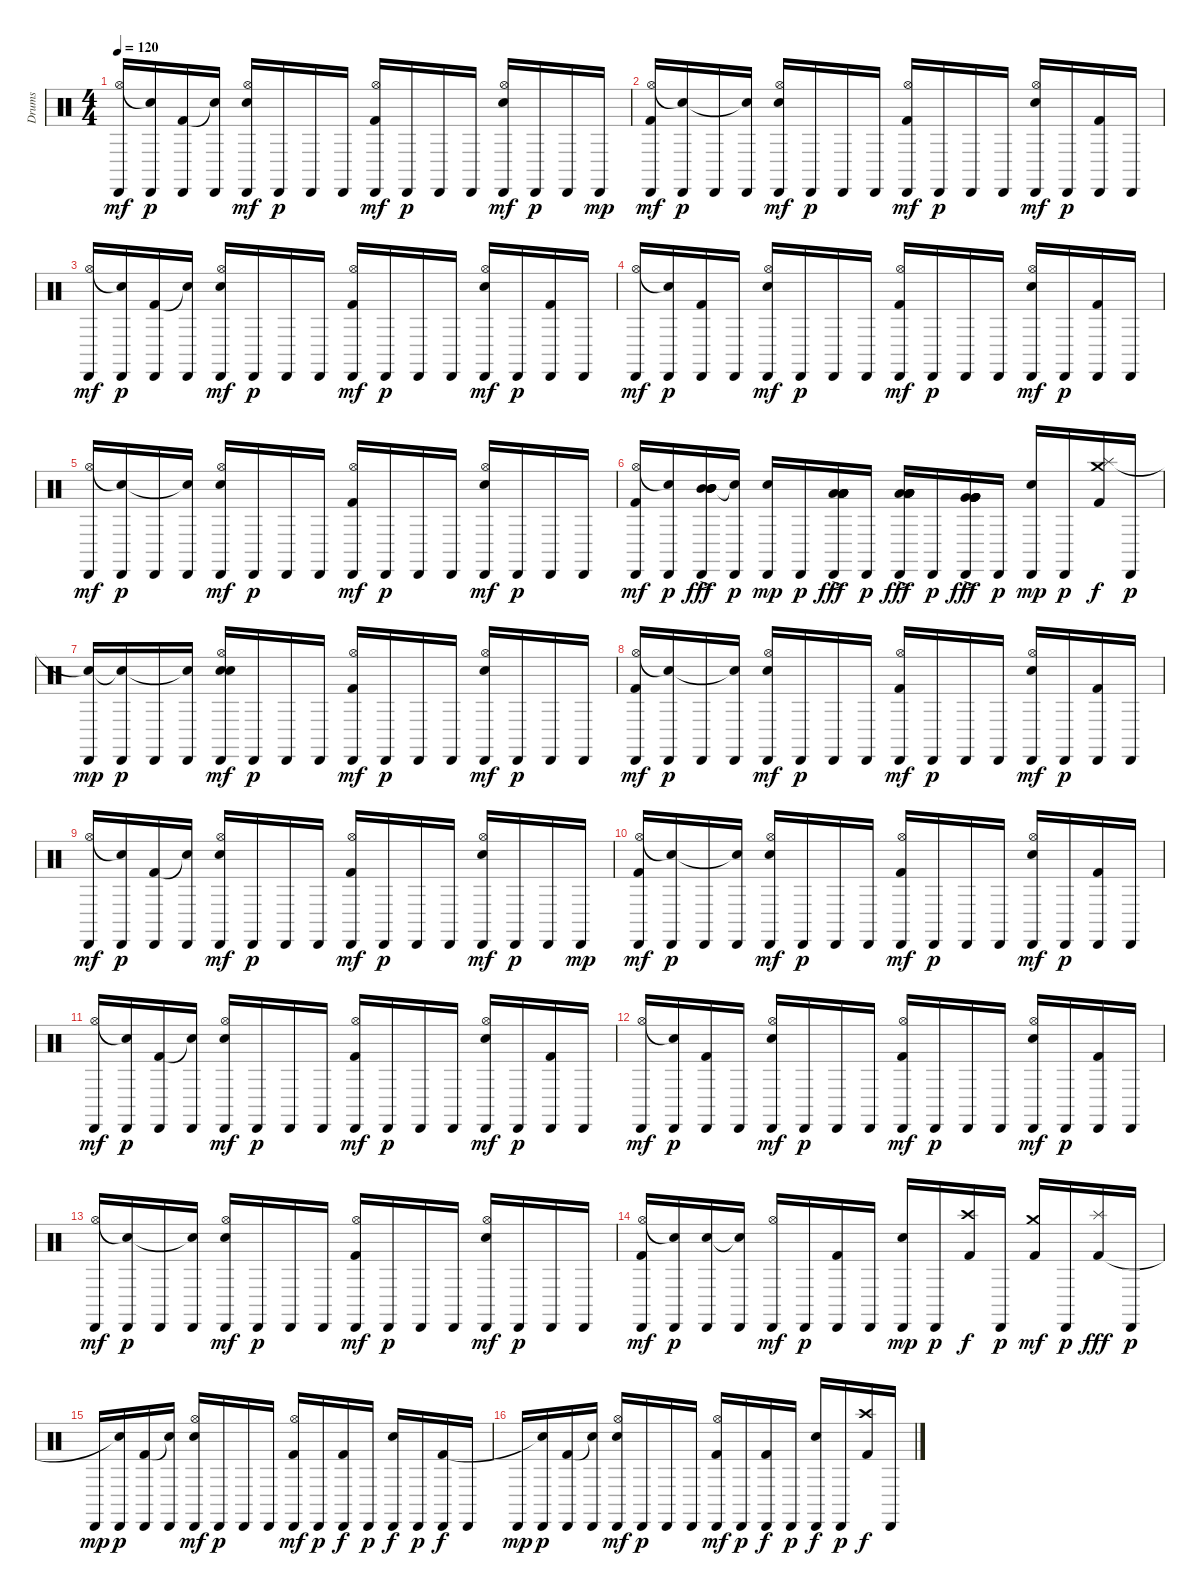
\track ("Drums" "Drums") {instrument percussion}
\staff {score}
\articulation defaults
\ts (4 4)
\tempo 120
\clef neutral
\ks c
("Cabasa (hit)" "Hi-Hat (open)").16{dy mf} ("Cabasa (hit)" "Snare (hit)"{t}).16{dy p} ("Cabasa (hit)" "Kick (hit) 2").16 ("Cabasa (hit)" "Snare (hit)"{t}).16 ("Cabasa (hit)" "Hi-Hat (open)" "Snare (hit) 2").16{dy mf} "Cabasa (hit)".16{dy p} "Cabasa (hit)".16 "Cabasa (hit)".16 ("Cabasa (hit)" "Hi-Hat (open)" "Kick (hit) 2").16{dy mf} "Cabasa (hit)".16{dy p} "Cabasa (hit)".16 "Cabasa (hit)".16 ("Cabasa (hit)" "Hi-Hat (open)" "Snare (hit) 2").16{dy mf} "Cabasa (hit)".16{dy p} "Cabasa (hit)".16 "Cabasa (hit)".16{dy mp} |
("Cabasa (hit)" "Hi-Hat (open)" "Kick (hit) 2").16{dy mf} ("Cabasa (hit)" "Snare (hit)"{t}).16{dy p} "Cabasa (hit)".16 ("Cabasa (hit)" "Snare (hit)"{t}).16 ("Cabasa (hit)" "Hi-Hat (open)" "Snare (hit) 2").16{dy mf} "Cabasa (hit)".16{dy p} "Cabasa (hit)".16 "Cabasa (hit)".16 ("Cabasa (hit)" "Hi-Hat (open)" "Kick (hit) 2").16{dy mf} "Cabasa (hit)".16{dy p} "Cabasa (hit)".16 "Cabasa (hit)".16 ("Cabasa (hit)" "Hi-Hat (open)" "Snare (hit) 2").16{dy mf} "Cabasa (hit)".16{dy p} ("Cabasa (hit)" "Kick (hit) 2").16 "Cabasa (hit)".16 |
("Cabasa (hit)" "Hi-Hat (open)").16{dy mf} ("Cabasa (hit)" "Snare (hit)"{t}).16{dy p} ("Cabasa (hit)" "Kick (hit) 2").16 ("Cabasa (hit)" "Snare (hit)"{t}).16 ("Cabasa (hit)" "Hi-Hat (open)" "Snare (hit) 2").16{dy mf} "Cabasa (hit)".16{dy p} "Cabasa (hit)".16 "Cabasa (hit)".16 ("Cabasa (hit)" "Hi-Hat (open)" "Kick (hit) 2").16{dy mf} "Cabasa (hit)".16{dy p} "Cabasa (hit)".16 "Cabasa (hit)".16 ("Cabasa (hit)" "Hi-Hat (open)" "Snare (hit) 2").16{dy mf} "Cabasa (hit)".16{dy p} ("Cabasa (hit)" "Kick (hit) 2").16 "Cabasa (hit)".16 |
("Cabasa (hit)" "Hi-Hat (open)").16{dy mf} ("Cabasa (hit)" "Snare (hit)"{t}).16{dy p} ("Cabasa (hit)" "Kick (hit) 2").16 "Cabasa (hit)".16 ("Cabasa (hit)" "Hi-Hat (open)" "Snare (hit) 2").16{dy mf} "Cabasa (hit)".16{dy p} "Cabasa (hit)".16 "Cabasa (hit)".16 ("Cabasa (hit)" "Hi-Hat (open)" "Kick (hit) 2").16{dy mf} "Cabasa (hit)".16{dy p} "Cabasa (hit)".16 "Cabasa (hit)".16 ("Cabasa (hit)" "Hi-Hat (open)" "Snare (hit) 2").16{dy mf} "Cabasa (hit)".16{dy p} ("Cabasa (hit)" "Kick (hit) 2").16 "Cabasa (hit)".16 |
("Cabasa (hit)" "Hi-Hat (open)").16{dy mf} ("Cabasa (hit)" "Snare (hit)"{t}).16{dy p} "Cabasa (hit)".16 ("Cabasa (hit)" "Snare (hit)"{t}).16 ("Cabasa (hit)" "Hi-Hat (open)" "Snare (hit) 2").16{dy mf} "Cabasa (hit)".16{dy p} "Cabasa (hit)".16 "Cabasa (hit)".16 ("Cabasa (hit)" "Hi-Hat (open)" "Kick (hit) 2").16{dy mf} "Cabasa (hit)".16{dy p} "Cabasa (hit)".16 "Cabasa (hit)".16 ("Cabasa (hit)" "Hi-Hat (open)" "Snare (hit) 2").16{dy mf} "Cabasa (hit)".16{dy p} "Cabasa (hit)".16 "Cabasa (hit)".16 |
("Cabasa (hit)" "Hi-Hat (open)" "Kick (hit) 2").16{dy mf} ("Cabasa (hit)" "Snare (hit)"{t}).16{dy p} ("Cabasa (hit)" "Mid Tom (hit)"{ac} "Mid Tom (hit)" "Mid Tom (hit)" "Mid Tom (hit)").16{dy fff} ("Cabasa (hit)" "Snare (hit)"{t}).16{dy p} ("Cabasa (hit)" "Snare (hit) 2").16{dy mp} "Cabasa (hit)".16{dy p} ("Cabasa (hit)" "Low Tom (hit)" "Low Tom (hit)" "Low Tom (hit)"{ac} "Low Tom (hit)" "Low Tom (hit)").16{dy fff} "Cabasa (hit)".16{dy p} ("Cabasa (hit)" "Low Tom (hit)" "Low Tom (hit)" "Low Tom (hit)"{ac} "Low Tom (hit)" "Low Tom (hit)").16{dy fff} "Cabasa (hit)".16{dy p} ("Cabasa (hit)" "Very Low Tom (hit)" "Very Low Tom (hit)" "Very Low Tom (hit)" "Very Low Tom (hit)"{ac} "Very Low Tom (hit)").16{dy fff} "Cabasa (hit)".16{dy p} ("Cabasa (hit)" "Snare (hit) 2").16{dy mp} "Cabasa (hit)".16{dy p} ("Crash medium (hit)" "Splash (hit)" "Kick (hit) 2").16{dy f} "Cabasa (hit)".16{dy p} |
("Cabasa (hit)" "Snare (hit)"{t}).16{dy mp} ("Cabasa (hit)" "Snare (hit)"{t}).16{dy p} "Cabasa (hit)".16 ("Cabasa (hit)" "Snare (hit)"{t}).16 ("Cabasa (hit)" "Hi-Hat (open)" "Snare (hit) 2" "Snare (hit) 2").16{dy mf} "Cabasa (hit)".16{dy p} "Cabasa (hit)".16 "Cabasa (hit)".16 ("Cabasa (hit)" "Hi-Hat (open)" "Kick (hit) 2").16{dy mf} "Cabasa (hit)".16{dy p} "Cabasa (hit)".16 "Cabasa (hit)".16 ("Cabasa (hit)" "Hi-Hat (open)" "Snare (hit) 2").16{dy mf} "Cabasa (hit)".16{dy p} "Cabasa (hit)".16 "Cabasa (hit)".16 |
("Cabasa (hit)" "Hi-Hat (open)" "Kick (hit) 2").16{dy mf} ("Cabasa (hit)" "Snare (hit)"{t}).16{dy p} "Cabasa (hit)".16 ("Cabasa (hit)" "Snare (hit)"{t}).16 ("Cabasa (hit)" "Hi-Hat (open)" "Snare (hit) 2").16{dy mf} "Cabasa (hit)".16{dy p} "Cabasa (hit)".16 "Cabasa (hit)".16 ("Cabasa (hit)" "Hi-Hat (open)" "Kick (hit) 2").16{dy mf} "Cabasa (hit)".16{dy p} "Cabasa (hit)".16 "Cabasa (hit)".16 ("Cabasa (hit)" "Hi-Hat (open)" "Snare (hit) 2").16{dy mf} "Cabasa (hit)".16{dy p} ("Cabasa (hit)" "Kick (hit) 2").16 "Cabasa (hit)".16 |
("Cabasa (hit)" "Hi-Hat (open)").16{dy mf} ("Cabasa (hit)" "Snare (hit)"{t}).16{dy p} ("Cabasa (hit)" "Kick (hit) 2").16 ("Cabasa (hit)" "Snare (hit)"{t}).16 ("Cabasa (hit)" "Hi-Hat (open)" "Snare (hit) 2").16{dy mf} "Cabasa (hit)".16{dy p} "Cabasa (hit)".16 "Cabasa (hit)".16 ("Cabasa (hit)" "Hi-Hat (open)" "Kick (hit) 2").16{dy mf} "Cabasa (hit)".16{dy p} "Cabasa (hit)".16 "Cabasa (hit)".16 ("Cabasa (hit)" "Hi-Hat (open)" "Snare (hit) 2").16{dy mf} "Cabasa (hit)".16{dy p} "Cabasa (hit)".16 "Cabasa (hit)".16{dy mp} |
("Cabasa (hit)" "Hi-Hat (open)" "Kick (hit) 2").16{dy mf} ("Cabasa (hit)" "Snare (hit)"{t}).16{dy p} "Cabasa (hit)".16 ("Cabasa (hit)" "Snare (hit)"{t}).16 ("Cabasa (hit)" "Hi-Hat (open)" "Snare (hit) 2").16{dy mf} "Cabasa (hit)".16{dy p} "Cabasa (hit)".16 "Cabasa (hit)".16 ("Cabasa (hit)" "Hi-Hat (open)" "Kick (hit) 2").16{dy mf} "Cabasa (hit)".16{dy p} "Cabasa (hit)".16 "Cabasa (hit)".16 ("Cabasa (hit)" "Hi-Hat (open)" "Snare (hit) 2").16{dy mf} "Cabasa (hit)".16{dy p} ("Cabasa (hit)" "Kick (hit) 2").16 "Cabasa (hit)".16 |
("Cabasa (hit)" "Hi-Hat (open)").16{dy mf} ("Cabasa (hit)" "Snare (hit)"{t}).16{dy p} ("Cabasa (hit)" "Kick (hit) 2").16 ("Cabasa (hit)" "Snare (hit)"{t}).16 ("Cabasa (hit)" "Hi-Hat (open)" "Snare (hit) 2").16{dy mf} "Cabasa (hit)".16{dy p} "Cabasa (hit)".16 "Cabasa (hit)".16 ("Cabasa (hit)" "Hi-Hat (open)" "Kick (hit) 2").16{dy mf} "Cabasa (hit)".16{dy p} "Cabasa (hit)".16 "Cabasa (hit)".16 ("Cabasa (hit)" "Hi-Hat (open)" "Snare (hit) 2").16{dy mf} "Cabasa (hit)".16{dy p} ("Cabasa (hit)" "Kick (hit) 2").16 "Cabasa (hit)".16 |
("Cabasa (hit)" "Hi-Hat (open)").16{dy mf} ("Cabasa (hit)" "Snare (hit)"{t}).16{dy p} ("Cabasa (hit)" "Kick (hit) 2").16 "Cabasa (hit)".16 ("Cabasa (hit)" "Hi-Hat (open)" "Snare (hit) 2").16{dy mf} "Cabasa (hit)".16{dy p} "Cabasa (hit)".16 "Cabasa (hit)".16 ("Cabasa (hit)" "Hi-Hat (open)" "Kick (hit) 2").16{dy mf} "Cabasa (hit)".16{dy p} "Cabasa (hit)".16 "Cabasa (hit)".16 ("Cabasa (hit)" "Hi-Hat (open)" "Snare (hit) 2").16{dy mf} "Cabasa (hit)".16{dy p} ("Cabasa (hit)" "Kick (hit) 2").16 "Cabasa (hit)".16 |
("Cabasa (hit)" "Hi-Hat (open)").16{dy mf} ("Cabasa (hit)" "Snare (hit)"{t}).16{dy p} "Cabasa (hit)".16 ("Cabasa (hit)" "Snare (hit)"{t}).16 ("Cabasa (hit)" "Hi-Hat (open)" "Snare (hit) 2").16{dy mf} "Cabasa (hit)".16{dy p} "Cabasa (hit)".16 "Cabasa (hit)".16 ("Cabasa (hit)" "Hi-Hat (open)" "Kick (hit) 2").16{dy mf} "Cabasa (hit)".16{dy p} "Cabasa (hit)".16 "Cabasa (hit)".16 ("Cabasa (hit)" "Hi-Hat (open)" "Snare (hit) 2").16{dy mf} "Cabasa (hit)".16{dy p} "Cabasa (hit)".16 "Cabasa (hit)".16 |
("Cabasa (hit)" "Hi-Hat (open)" "Kick (hit) 2").16{dy mf} ("Cabasa (hit)" "Snare (hit)"{t}).16{dy p} ("Cabasa (hit)" "Snare (hit) 2").16 ("Cabasa (hit)" "Snare (hit)"{t}).16 ("Cabasa (hit)" "Hi-Hat (open)").16{dy mf} "Cabasa (hit)".16{dy p} ("Cabasa (hit)" "Kick (hit) 2").16 "Cabasa (hit)".16 ("Cabasa (hit)" "Snare (hit) 2").16{dy mp} "Cabasa (hit)".16{dy p} ("Crash high (hit)" "Kick (hit) 2").16{dy f} "Cabasa (hit)".16{dy p} ("Crash medium (hit)" "Kick (hit) 2").16{dy mf} "Cabasa (hit)".16{dy p} ("Splash (hit)" "Kick (hit) 2").16{dy fff} "Cabasa (hit)".16{dy p} |
"Cabasa (hit)".16{dy mp} ("Cabasa (hit)" "Snare (hit)"{t}).16{dy p} ("Cabasa (hit)" "Kick (hit) 2").16 ("Cabasa (hit)" "Snare (hit)"{t}).16 ("Cabasa (hit)" "Hi-Hat (open)" "Snare (hit) 2").16{dy mf} "Cabasa (hit)".16{dy p} "Cabasa (hit)".16 "Cabasa (hit)".16 ("Cabasa (hit)" "Hi-Hat (open)" "Kick (hit) 2").16{dy mf} "Cabasa (hit)".16{dy p} ("Cabasa (hit)" "Kick (hit) 2").16{dy f} "Cabasa (hit)".16{dy p} ("Cabasa (hit)" "Snare (hit) 2").16{dy f} "Cabasa (hit)".16{dy p} ("Cabasa (hit)" "Kick (hit) 2").16{dy f} "Cabasa (hit)".16 |
"Cabasa (hit)".16{dy mp} ("Cabasa (hit)" "Snare (hit)"{t}).16{dy p} ("Cabasa (hit)" "Kick (hit) 2").16 ("Cabasa (hit)" "Snare (hit)"{t}).16 ("Cabasa (hit)" "Hi-Hat (open)" "Snare (hit) 2").16{dy mf} "Cabasa (hit)".16{dy p} "Cabasa (hit)".16 "Cabasa (hit)".16 ("Cabasa (hit)" "Hi-Hat (open)" "Kick (hit) 2").16{dy mf} "Cabasa (hit)".16{dy p} ("Cabasa (hit)" "Kick (hit) 2").16{dy f} "Cabasa (hit)".16{dy p} ("Cabasa (hit)" "Snare (hit) 2").16{dy f} "Cabasa (hit)".16{dy p} ("Crash high (hit)" "Kick (hit) 2").16{dy f} "Cabasa (hit)".16
